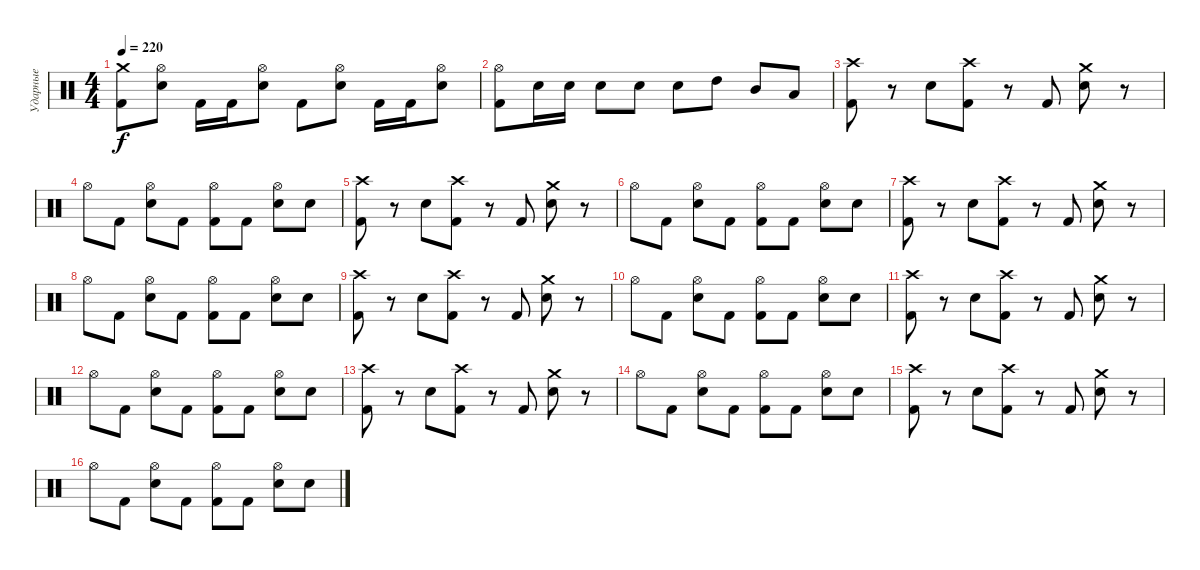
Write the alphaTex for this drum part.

\track ("Ударные" "Ударные") {instrument percussion}
\staff {score}
\articulation defaults
\ts (4 4)
\tempo 220
\clef neutral
\ks c
("Crash medium (hit)" "Kick (hit) 2").8{dy f} ("Hi-Hat (open)" "Electric Snare (hit)").8 "Kick (hit) 2".16 "Kick (hit) 2".16 ("Hi-Hat (open)" "Electric Snare (hit)").8 "Kick (hit) 2".8 ("Hi-Hat (open)" "Electric Snare (hit)").8 "Kick (hit) 2".16 "Kick (hit) 2".16 ("Hi-Hat (open)" "Electric Snare (hit)").8 |
("Hi-Hat (open)" "Kick (hit) 2").8 "Electric Snare (hit)".16 "Electric Snare (hit)".16 "Electric Snare (hit)".8 "Electric Snare (hit)".8 "Electric Snare (hit)".8 "High Tom (hit)".8 "Mid Tom (hit)".8 "Low Floor Tom (hit)".8 |
("Crash high (hit)" "Kick (hit) 2").8 r.8 "Electric Snare (hit)".8 ("Crash high (hit)" "Kick (hit) 2").8 r.8 "Kick (hit) 2".8 ("Crash medium (hit)" "Electric Snare (hit)").8 r.8 |
"Hi-Hat (open)".8 "Kick (hit) 2".8 ("Hi-Hat (open)" "Electric Snare (hit)").8 "Kick (hit) 2".8 ("Hi-Hat (open)" "Kick (hit) 2").8 "Kick (hit) 2".8 ("Hi-Hat (open)" "Electric Snare (hit)").8 "Electric Snare (hit)".8 |
("Crash high (hit)" "Kick (hit) 2").8 r.8 "Electric Snare (hit)".8 ("Crash high (hit)" "Kick (hit) 2").8 r.8 "Kick (hit) 2".8 ("Crash medium (hit)" "Electric Snare (hit)").8 r.8 |
"Hi-Hat (open)".8 "Kick (hit) 2".8 ("Hi-Hat (open)" "Electric Snare (hit)").8 "Kick (hit) 2".8 ("Hi-Hat (open)" "Kick (hit) 2").8 "Kick (hit) 2".8 ("Hi-Hat (open)" "Electric Snare (hit)").8 "Electric Snare (hit)".8 |
("Crash high (hit)" "Kick (hit) 2").8 r.8 "Electric Snare (hit)".8 ("Crash high (hit)" "Kick (hit) 2").8 r.8 "Kick (hit) 2".8 ("Crash medium (hit)" "Electric Snare (hit)").8 r.8 |
"Hi-Hat (open)".8 "Kick (hit) 2".8 ("Hi-Hat (open)" "Electric Snare (hit)").8 "Kick (hit) 2".8 ("Hi-Hat (open)" "Kick (hit) 2").8 "Kick (hit) 2".8 ("Hi-Hat (open)" "Electric Snare (hit)").8 "Electric Snare (hit)".8 |
("Crash high (hit)" "Kick (hit) 2").8 r.8 "Electric Snare (hit)".8 ("Crash high (hit)" "Kick (hit) 2").8 r.8 "Kick (hit) 2".8 ("Crash medium (hit)" "Electric Snare (hit)").8 r.8 |
"Hi-Hat (open)".8 "Kick (hit) 2".8 ("Hi-Hat (open)" "Electric Snare (hit)").8 "Kick (hit) 2".8 ("Hi-Hat (open)" "Kick (hit) 2").8 "Kick (hit) 2".8 ("Hi-Hat (open)" "Electric Snare (hit)").8 "Electric Snare (hit)".8 |
("Crash high (hit)" "Kick (hit) 2").8 r.8 "Electric Snare (hit)".8 ("Crash high (hit)" "Kick (hit) 2").8 r.8 "Kick (hit) 2".8 ("Crash medium (hit)" "Electric Snare (hit)").8 r.8 |
"Hi-Hat (open)".8 "Kick (hit) 2".8 ("Hi-Hat (open)" "Electric Snare (hit)").8 "Kick (hit) 2".8 ("Hi-Hat (open)" "Kick (hit) 2").8 "Kick (hit) 2".8 ("Hi-Hat (open)" "Electric Snare (hit)").8 "Electric Snare (hit)".8 |
("Crash high (hit)" "Kick (hit) 2").8 r.8 "Electric Snare (hit)".8 ("Crash high (hit)" "Kick (hit) 2").8 r.8 "Kick (hit) 2".8 ("Crash medium (hit)" "Electric Snare (hit)").8 r.8 |
"Hi-Hat (open)".8 "Kick (hit) 2".8 ("Hi-Hat (open)" "Electric Snare (hit)").8 "Kick (hit) 2".8 ("Hi-Hat (open)" "Kick (hit) 2").8 "Kick (hit) 2".8 ("Hi-Hat (open)" "Electric Snare (hit)").8 "Electric Snare (hit)".8 |
("Crash high (hit)" "Kick (hit) 2").8 r.8 "Electric Snare (hit)".8 ("Crash high (hit)" "Kick (hit) 2").8 r.8 "Kick (hit) 2".8 ("Crash medium (hit)" "Electric Snare (hit)").8 r.8 |
"Hi-Hat (open)".8 "Kick (hit) 2".8 ("Hi-Hat (open)" "Electric Snare (hit)").8 "Kick (hit) 2".8 ("Hi-Hat (open)" "Kick (hit) 2").8 "Kick (hit) 2".8 ("Hi-Hat (open)" "Electric Snare (hit)").8 "Electric Snare (hit)".8
